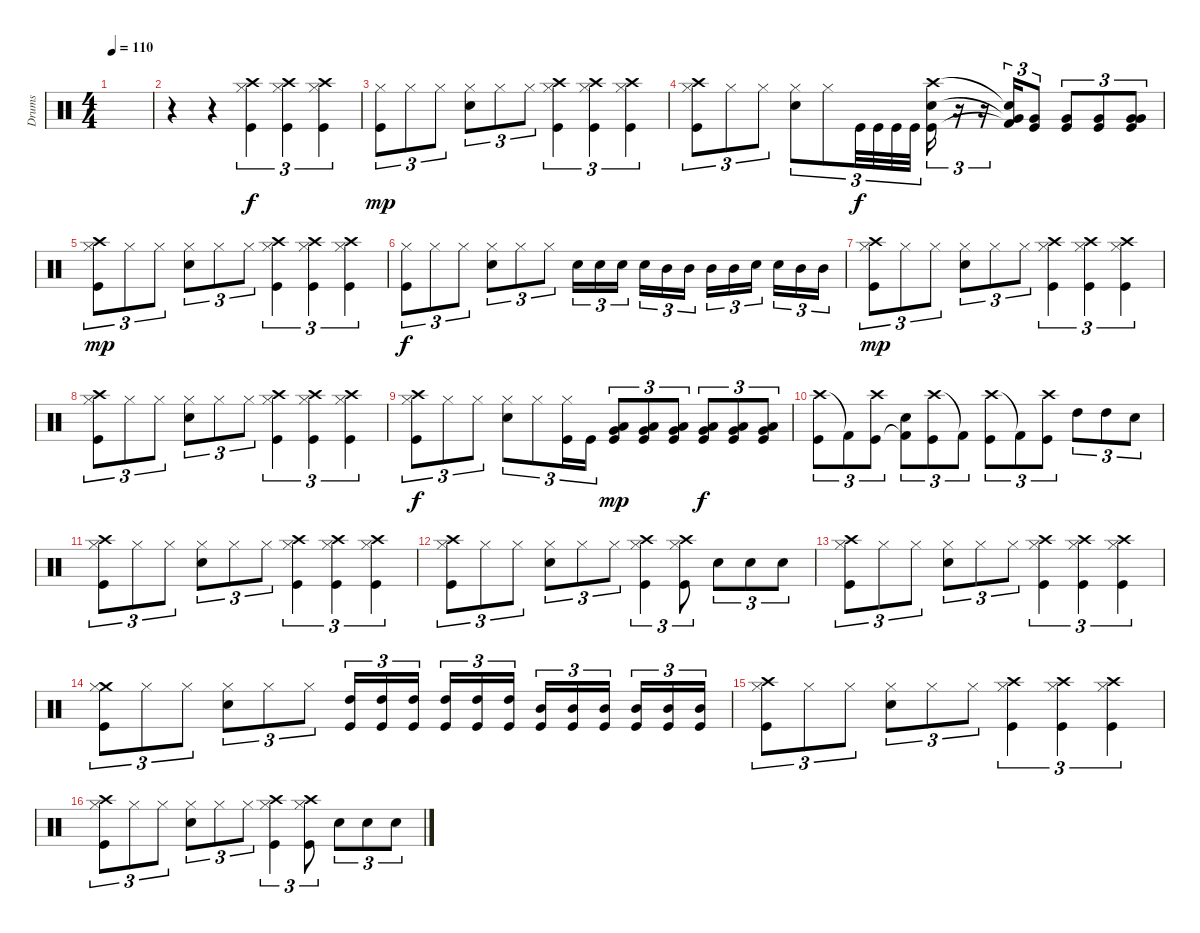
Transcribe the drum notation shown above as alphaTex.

\track ("Drums" "Drums") {instrument percussion}
\staff {score}
\articulation defaults
\ts (4 4)
\tempo 110
\clef neutral
\ks c
|
r.4 r.4 ("Crash high (hit)" "Hi-Hat (closed)" "Kick (hit)").4{tu (3 2)} ("Crash high (hit)" "Hi-Hat (closed)" "Kick (hit)").4{tu (3 2)} ("Crash high (hit)" "Hi-Hat (closed)" "Kick (hit)").4{tu (3 2)} |
("Hi-Hat (closed)" "Kick (hit)").8{tu (3 2) dy mp} "Hi-Hat (closed)".8{tu (3 2)} "Hi-Hat (closed)".8{tu (3 2)} ("Hi-Hat (closed)" "Snare (hit) 2").8{tu (3 2)} "Hi-Hat (closed)".8{tu (3 2)} "Hi-Hat (closed)".8{tu (3 2)} ("Crash high (hit)" "Hi-Hat (closed)" "Kick (hit)").4{tu (3 2)} ("Crash high (hit)" "Hi-Hat (closed)" "Kick (hit)").4{tu (3 2)} ("Crash high (hit)" "Hi-Hat (closed)" "Kick (hit)").4{tu (3 2)} |
("Crash high (hit)" "Hi-Hat (closed)" "Kick (hit)").8{tu (3 2)} "Hi-Hat (closed)".8{tu (3 2)} "Hi-Hat (closed)".8{tu (3 2)} ("Hi-Hat (closed)" "Snare (hit) 2").8{tu (3 2)} "Hi-Hat (closed)".8{tu (3 2)} "Kick (hit)".32{tu (3 2) dy f} "Kick (hit)".32{tu (3 2)} "Kick (hit)".32{tu (3 2)} "Kick (hit)".32{tu (3 2)} ("Crash high (hit)" "Snare (hit) 2" "Kick (hit)").16{tu (3 2)} r.16{tu (3 2)} r.16{tu (3 2)} ("Snare (hit)"{t} "Very Low Tom (hit)"{t} "Kick (hit) 2"{t}).16{tu (3 2)} ("Very Low Tom (hit)" "Kick (hit)").8{tu (3 2)} ("Very Low Tom (hit)" "Kick (hit)").8{tu (3 2)} ("Very Low Tom (hit)" "Kick (hit)").8{tu (3 2)} ("Very Low Tom (hit)" "Very Low Tom (hit)" "Kick (hit)").8{tu (3 2)} |
("Crash high (hit)" "Hi-Hat (closed)" "Kick (hit)").8{tu (3 2) dy mp} "Hi-Hat (closed)".8{tu (3 2)} "Hi-Hat (closed)".8{tu (3 2)} ("Hi-Hat (closed)" "Snare (hit) 2").8{tu (3 2)} "Hi-Hat (closed)".8{tu (3 2)} "Hi-Hat (closed)".8{tu (3 2)} ("Crash high (hit)" "Hi-Hat (closed)" "Kick (hit)").4{tu (3 2)} ("Crash high (hit)" "Hi-Hat (closed)" "Kick (hit)").4{tu (3 2)} ("Crash high (hit)" "Hi-Hat (closed)" "Kick (hit)").4{tu (3 2)} |
("Hi-Hat (closed)" "Kick (hit)").8{tu (3 2) dy f} "Hi-Hat (closed)".8{tu (3 2)} "Hi-Hat (closed)".8{tu (3 2)} ("Hi-Hat (closed)" "Snare (hit) 2").8{tu (3 2)} "Hi-Hat (closed)".8{tu (3 2)} "Hi-Hat (closed)".8{tu (3 2)} "Snare (hit) 2".16{tu (3 2)} "Snare (hit) 2".16{tu (3 2)} "Snare (hit) 2".16{tu (3 2)} "Snare (hit) 2".16{tu (3 2)} "Mid Tom (hit)".16{tu (3 2)} "Mid Tom (hit)".16{tu (3 2)} "Mid Tom (hit)".16{tu (3 2)} "Mid Tom (hit)".16{tu (3 2)} "Snare (hit) 2".16{tu (3 2)} "Snare (hit) 2".16{tu (3 2)} "Mid Tom (hit)".16{tu (3 2)} "Mid Tom (hit)".16{tu (3 2)} |
("Crash high (hit)" "Hi-Hat (closed)" "Kick (hit)").8{tu (3 2) dy mp} "Hi-Hat (closed)".8{tu (3 2)} "Hi-Hat (closed)".8{tu (3 2)} ("Hi-Hat (closed)" "Snare (hit) 2").8{tu (3 2)} "Hi-Hat (closed)".8{tu (3 2)} "Hi-Hat (closed)".8{tu (3 2)} ("Crash high (hit)" "Hi-Hat (closed)" "Kick (hit)").4{tu (3 2)} ("Crash high (hit)" "Hi-Hat (closed)" "Kick (hit)").4{tu (3 2)} ("Crash high (hit)" "Hi-Hat (closed)" "Kick (hit)").4{tu (3 2)} |
("Crash high (hit)" "Hi-Hat (closed)" "Kick (hit)").8{tu (3 2)} "Hi-Hat (closed)".8{tu (3 2)} "Hi-Hat (closed)".8{tu (3 2)} ("Hi-Hat (closed)" "Snare (hit) 2").8{tu (3 2)} "Hi-Hat (closed)".8{tu (3 2)} "Hi-Hat (closed)".8{tu (3 2)} ("Crash high (hit)" "Hi-Hat (closed)" "Kick (hit)").4{tu (3 2)} ("Crash high (hit)" "Hi-Hat (closed)" "Kick (hit)").4{tu (3 2)} ("Crash high (hit)" "Hi-Hat (closed)" "Kick (hit)").4{tu (3 2)} |
("Crash high (hit)" "Hi-Hat (closed)" "Kick (hit)").8{tu (3 2) dy f} "Hi-Hat (closed)".8{tu (3 2)} "Hi-Hat (closed)".8{tu (3 2)} ("Hi-Hat (closed)" "Snare (hit) 2").8{tu (3 2)} "Hi-Hat (closed)".8{tu (3 2)} ("Hi-Hat (closed)" "Kick (hit)").16{tu (3 2)} "Kick (hit)".16{tu (3 2)} ("Low Tom (hit)" "Very Low Tom (hit)" "Kick (hit)").8{tu (3 2) dy mp} ("Low Tom (hit)" "Very Low Tom (hit)" "Kick (hit)").8{tu (3 2)} ("Low Tom (hit)" "Very Low Tom (hit)" "Kick (hit)").8{tu (3 2)} ("Very Low Tom (hit)" "Low Floor Tom (hit)" "Kick (hit)").8{tu (3 2) dy f} ("Very Low Tom (hit)" "Low Floor Tom (hit)" "Kick (hit)").8{tu (3 2)} ("Very Low Tom (hit)" "Low Floor Tom (hit)" "Kick (hit)").8{tu (3 2)} |
("Crash high (hit)" "Kick (hit)").8{tu (3 2)} "Kick (hit) 2"{t}.8{tu (3 2)} ("Crash high (hit)" "Kick (hit)").8{tu (3 2)} ("Snare (hit) 2" "Kick (hit) 2"{t}).8{tu (3 2)} ("Crash high (hit)" "Kick (hit)").8{tu (3 2)} "Kick (hit) 2"{t}.8{tu (3 2)} ("Crash high (hit)" "Kick (hit)").8{tu (3 2)} "Kick (hit) 2"{t}.8{tu (3 2)} ("Crash high (hit)" "Kick (hit)").8{tu (3 2)} "High Tom (hit)".8{tu (3 2)} "High Tom (hit)".8{tu (3 2)} "Snare (hit) 2".8{tu (3 2)} |
("Crash high (hit)" "Hi-Hat (closed)" "Kick (hit)").8{tu (3 2)} "Hi-Hat (closed)".8{tu (3 2)} "Hi-Hat (closed)".8{tu (3 2)} ("Hi-Hat (closed)" "Snare (hit) 2").8{tu (3 2)} "Hi-Hat (closed)".8{tu (3 2)} "Hi-Hat (closed)".8{tu (3 2)} ("Crash high (hit)" "Hi-Hat (closed)" "Kick (hit)").4{tu (3 2)} ("Crash high (hit)" "Hi-Hat (closed)" "Kick (hit)").4{tu (3 2)} ("Crash high (hit)" "Hi-Hat (closed)" "Kick (hit)").4{tu (3 2)} |
("Crash high (hit)" "Hi-Hat (closed)" "Kick (hit)").8{tu (3 2)} "Hi-Hat (closed)".8{tu (3 2)} "Hi-Hat (closed)".8{tu (3 2)} ("Hi-Hat (closed)" "Snare (hit) 2").8{tu (3 2)} "Hi-Hat (closed)".8{tu (3 2)} "Hi-Hat (closed)".8{tu (3 2)} ("Crash high (hit)" "Hi-Hat (closed)" "Kick (hit)").4{tu (3 2)} ("Crash high (hit)" "Hi-Hat (closed)" "Kick (hit)").8{tu (3 2)} "Snare (hit) 2".8{tu (3 2)} "Snare (hit) 2".8{tu (3 2)} "Snare (hit) 2".8{tu (3 2)} |
("Crash high (hit)" "Hi-Hat (closed)" "Kick (hit)").8{tu (3 2)} "Hi-Hat (closed)".8{tu (3 2)} "Hi-Hat (closed)".8{tu (3 2)} ("Hi-Hat (closed)" "Snare (hit) 2").8{tu (3 2)} "Hi-Hat (closed)".8{tu (3 2)} "Hi-Hat (closed)".8{tu (3 2)} ("Crash high (hit)" "Hi-Hat (closed)" "Kick (hit)").4{tu (3 2)} ("Crash high (hit)" "Hi-Hat (closed)" "Kick (hit)").4{tu (3 2)} ("Crash high (hit)" "Hi-Hat (closed)" "Kick (hit)").4{tu (3 2)} |
("Crash medium (hit)" "Hi-Hat (closed)" "Kick (hit)").8{tu (3 2)} "Hi-Hat (closed)".8{tu (3 2)} "Hi-Hat (closed)".8{tu (3 2)} ("Hi-Hat (closed)" "Snare (hit) 2").8{tu (3 2)} "Hi-Hat (closed)".8{tu (3 2)} "Hi-Hat (closed)".8{tu (3 2)} ("High Tom (hit)" "Kick (hit)").16{tu (3 2)} ("High Tom (hit)" "Kick (hit)").16{tu (3 2)} ("High Tom (hit)" "Kick (hit)").16{tu (3 2)} ("High Tom (hit)" "Kick (hit)").16{tu (3 2)} ("High Tom (hit)" "Kick (hit)").16{tu (3 2)} ("High Tom (hit)" "Kick (hit)").16{tu (3 2)} ("Mid Tom (hit)" "Kick (hit)").16{tu (3 2)} ("Mid Tom (hit)" "Kick (hit)").16{tu (3 2)} ("Mid Tom (hit)" "Kick (hit)").16{tu (3 2)} ("Mid Tom (hit)" "Kick (hit)").16{tu (3 2)} ("Mid Tom (hit)" "Kick (hit)").16{tu (3 2)} ("Mid Tom (hit)" "Kick (hit)").16{tu (3 2)} |
("Crash high (hit)" "Hi-Hat (closed)" "Kick (hit)").8{tu (3 2)} "Hi-Hat (closed)".8{tu (3 2)} "Hi-Hat (closed)".8{tu (3 2)} ("Hi-Hat (closed)" "Snare (hit) 2").8{tu (3 2)} "Hi-Hat (closed)".8{tu (3 2)} "Hi-Hat (closed)".8{tu (3 2)} ("Crash high (hit)" "Hi-Hat (closed)" "Kick (hit)").4{tu (3 2)} ("Crash high (hit)" "Hi-Hat (closed)" "Kick (hit)").4{tu (3 2)} ("Crash high (hit)" "Hi-Hat (closed)" "Kick (hit)").4{tu (3 2)} |
("Crash high (hit)" "Hi-Hat (closed)" "Kick (hit)").8{tu (3 2)} "Hi-Hat (closed)".8{tu (3 2)} "Hi-Hat (closed)".8{tu (3 2)} ("Hi-Hat (closed)" "Snare (hit) 2").8{tu (3 2)} "Hi-Hat (closed)".8{tu (3 2)} "Hi-Hat (closed)".8{tu (3 2)} ("Crash high (hit)" "Hi-Hat (closed)" "Kick (hit)").4{tu (3 2)} ("Crash high (hit)" "Hi-Hat (closed)" "Kick (hit)").8{tu (3 2)} "Snare (hit) 2".8{tu (3 2)} "Snare (hit) 2".8{tu (3 2)} "Snare (hit) 2".8{tu (3 2)}
